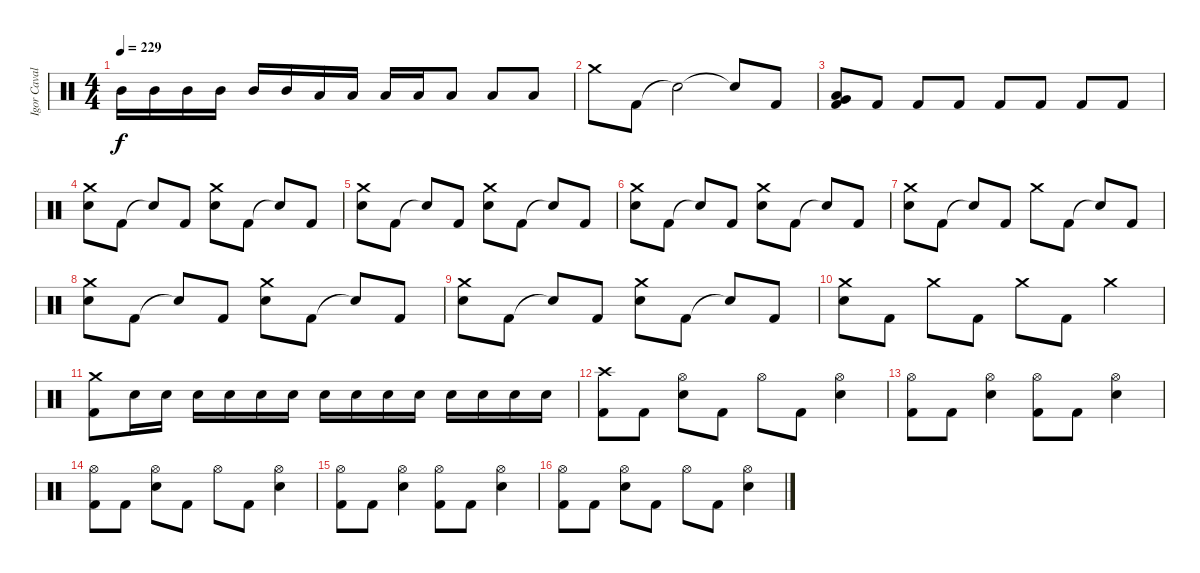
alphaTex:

\track ("Igor Cavalera" "Igor Caval") {instrument percussion}
\staff {score}
\articulation defaults
\ts (4 4)
\tempo 229
\clef neutral
\ks c "Mid Tom (hit)".16{dy f} "Mid Tom (hit)".16 "Mid Tom (hit)".16 "Mid Tom (hit)".16 "Mid Tom (hit)".16 "Mid Tom (hit)".16 "Low Tom (hit)".16 "Low Tom (hit)".16 "Low Tom (hit)".16 "Low Tom (hit)".16 "Low Tom (hit)".8 "Low Tom (hit)".8 "Low Tom (hit)".8
|
"Crash medium (hit)".8 "Kick (hit) 2".8 "Snare (hit)"{t}.2 "Snare (hit)"{t}.8 "Kick (hit) 2".8 |
("Kick (hit) 2" "Very Low Tom (hit)" "Low Tom (hit)").8 "Kick (hit) 2".8 "Kick (hit) 2".8 "Kick (hit) 2".8 "Kick (hit) 2".8 "Kick (hit) 2".8 "Kick (hit) 2".8 "Kick (hit) 2".8 |
("Snare (hit) 2" "Crash medium (hit)").8 "Kick (hit) 2".8 "Snare (hit)"{t}.8 "Kick (hit) 2".8 ("Snare (hit) 2" "Crash medium (hit)").8 "Kick (hit) 2".8 "Snare (hit)"{t}.8 "Kick (hit) 2".8 |
("Snare (hit) 2" "Crash medium (hit)").8 "Kick (hit) 2".8 "Snare (hit)"{t}.8 "Kick (hit) 2".8 ("Snare (hit) 2" "Crash medium (hit)").8 "Kick (hit) 2".8 "Snare (hit)"{t}.8 "Kick (hit) 2".8 |
("Snare (hit) 2" "Crash medium (hit)").8 "Kick (hit) 2".8 "Snare (hit)"{t}.8 "Kick (hit) 2".8 ("Snare (hit) 2" "Crash medium (hit)").8 "Kick (hit) 2".8 "Snare (hit)"{t}.8 "Kick (hit) 2".8 |
("Snare (hit) 2" "Crash medium (hit)").8 "Kick (hit) 2".8 "Snare (hit)"{t}.8 "Kick (hit) 2".8 "Crash medium (hit)".8 "Kick (hit) 2".8 "Snare (hit)"{t}.8 "Kick (hit) 2".8 |
("Snare (hit) 2" "Crash medium (hit)").8 "Kick (hit) 2".8 "Snare (hit)"{t}.8 "Kick (hit) 2".8 ("Snare (hit) 2" "Crash medium (hit)").8 "Kick (hit) 2".8 "Snare (hit)"{t}.8 "Kick (hit) 2".8 |
("Snare (hit) 2" "Crash medium (hit)").8 "Kick (hit) 2".8 "Snare (hit)"{t}.8 "Kick (hit) 2".8 ("Snare (hit) 2" "Crash medium (hit)").8 "Kick (hit) 2".8 "Snare (hit)"{t}.8 "Kick (hit) 2".8 |
("Snare (hit) 2" "Crash medium (hit)").8 "Kick (hit) 2".8 "Crash medium (hit)".8 "Kick (hit) 2".8 "Crash medium (hit)".8 "Kick (hit) 2".8 "Crash medium (hit)".4 |
("Kick (hit) 2" "Crash medium (hit)").8 "Snare (hit) 2".16 "Snare (hit) 2".16 "Snare (hit) 2".16 "Snare (hit) 2".16 "Snare (hit) 2".16 "Snare (hit) 2".16 "Snare (hit) 2".16 "Snare (hit) 2".16 "Snare (hit) 2".16 "Snare (hit) 2".16 "Snare (hit) 2".16 "Snare (hit) 2".16 "Snare (hit) 2".16 "Snare (hit) 2".16 |
("Kick (hit) 2" "Crash high (hit)").8 "Kick (hit) 2".8 ("Snare (hit) 2" "Hi-Hat (open)").8 "Kick (hit) 2".8 "Hi-Hat (open)".8 "Kick (hit) 2".8 ("Snare (hit) 2" "Hi-Hat (open)").4 |
("Kick (hit) 2" "Hi-Hat (open)").8 "Kick (hit) 2".8 ("Snare (hit) 2" "Hi-Hat (open)").4 ("Kick (hit) 2" "Hi-Hat (open)").8 "Kick (hit) 2".8 ("Snare (hit) 2" "Hi-Hat (open)").4 |
("Kick (hit) 2" "Hi-Hat (open)").8 "Kick (hit) 2".8 ("Snare (hit) 2" "Hi-Hat (open)").8 "Kick (hit) 2".8 "Hi-Hat (open)".8 "Kick (hit) 2".8 ("Snare (hit) 2" "Hi-Hat (open)").4 |
("Kick (hit) 2" "Hi-Hat (open)").8 "Kick (hit) 2".8 ("Snare (hit) 2" "Hi-Hat (open)").4 ("Kick (hit) 2" "Hi-Hat (open)").8 "Kick (hit) 2".8 ("Snare (hit) 2" "Hi-Hat (open)").4 |
("Kick (hit) 2" "Hi-Hat (open)").8 "Kick (hit) 2".8 ("Snare (hit) 2" "Hi-Hat (open)").8 "Kick (hit) 2".8 "Hi-Hat (open)".8 "Kick (hit) 2".8 ("Snare (hit) 2" "Hi-Hat (open)").4
